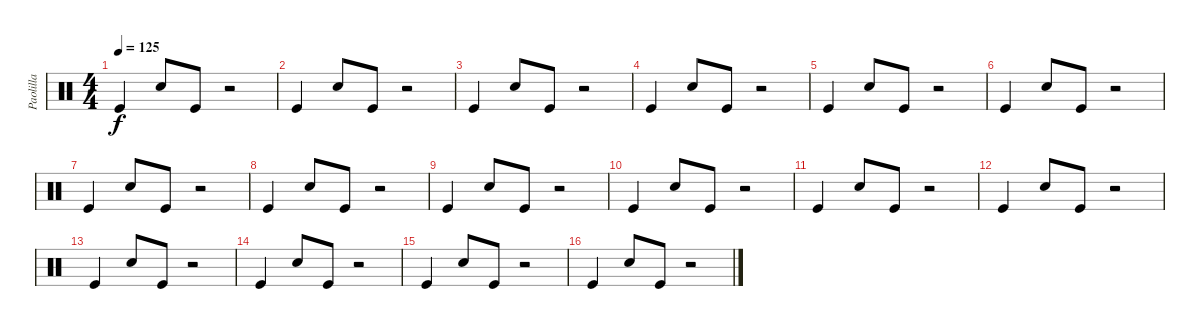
\track ("Paolilla" "Paolilla") {instrument percussion}
\staff {score}
\articulation defaults
\ts (4 4)
\tempo 125
\clef neutral
\ks c "Kick (hit)".4{dy f} "Snare (hit) 2".8 "Kick (hit)".8
r.2 |
"Kick (hit)".4 "Snare (hit) 2".8 "Kick (hit)".8 r.2 |
"Kick (hit)".4 "Snare (hit) 2".8 "Kick (hit)".8 r.2 |
"Kick (hit)".4 "Snare (hit) 2".8 "Kick (hit)".8 r.2 |
"Kick (hit)".4 "Snare (hit) 2".8 "Kick (hit)".8 r.2 |
"Kick (hit)".4 "Snare (hit) 2".8 "Kick (hit)".8 r.2 |
"Kick (hit)".4 "Snare (hit) 2".8 "Kick (hit)".8 r.2 |
"Kick (hit)".4 "Snare (hit) 2".8 "Kick (hit)".8 r.2 |
"Kick (hit)".4 "Snare (hit) 2".8 "Kick (hit)".8 r.2 |
"Kick (hit)".4 "Snare (hit) 2".8 "Kick (hit)".8 r.2 |
"Kick (hit)".4 "Snare (hit) 2".8 "Kick (hit)".8 r.2 |
"Kick (hit)".4 "Snare (hit) 2".8 "Kick (hit)".8 r.2 |
"Kick (hit)".4 "Snare (hit) 2".8 "Kick (hit)".8 r.2 |
"Kick (hit)".4 "Snare (hit) 2".8 "Kick (hit)".8 r.2 |
"Kick (hit)".4 "Snare (hit) 2".8 "Kick (hit)".8 r.2 |
"Kick (hit)".4 "Snare (hit) 2".8 "Kick (hit)".8 r.2
